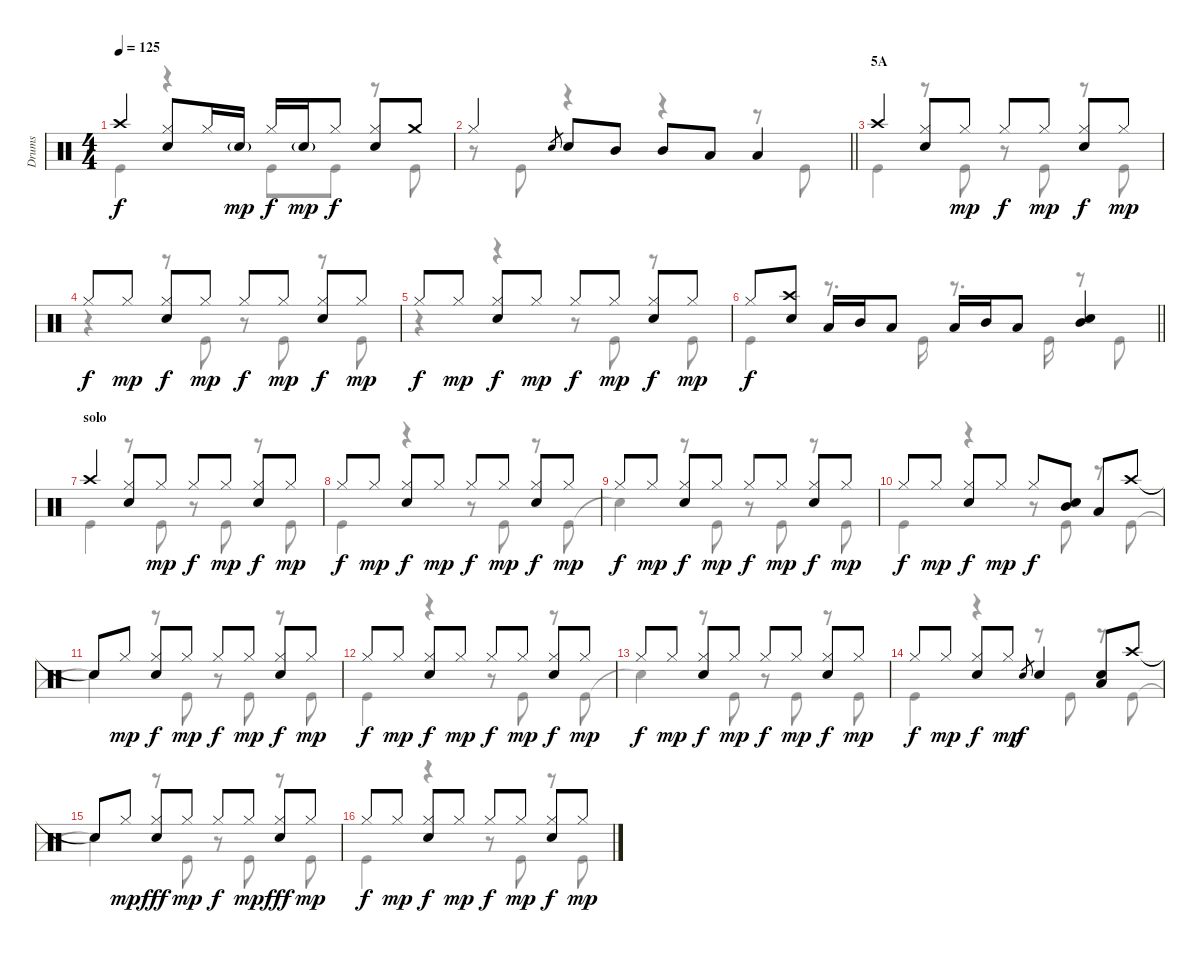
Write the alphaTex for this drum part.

\track ("Drums" "Drums") {instrument percussion}
\staff {score}
\articulation defaults
\voice
\ts (4 4)
\tempo 125
\clef neutral
\ks c "Crash high (hit)".4{dy f}
("Hi-Hat (closed)" "Snare (hit) 2").8 "Hi-Hat (closed)".16 "Snare (hit) 2"{g}.16{dy mp} "Hi-Hat (closed)".16{dy f} "Snare (hit) 2"{g}.16{dy mp} "Hi-Hat (closed)".8{dy f} ("Hi-Hat (closed)" "Snare (hit) 2").8 "Crash medium (hit)".8 |
\barLineRight lightlight "Hi-Hat (closed)".4 "Snare (hit) 2".8{gr} "Snare (hit) 2".8 "Mid Tom (hit)".8 "Mid Tom (hit)".8 "Low Tom (hit)".8 "Low Tom (hit)".4
|
\section ("" "5A")
"Crash high (hit)".4 ("Hi-Hat (closed)" "Snare (hit) 2").8 "Hi-Hat (closed)".8{dy mp} "Hi-Hat (closed)".8{dy f} "Hi-Hat (closed)".8{dy mp} ("Hi-Hat (closed)" "Snare (hit) 2").8{dy f} "Hi-Hat (closed)".8{dy mp} |
"Hi-Hat (closed)".8{dy f} "Hi-Hat (closed)".8{dy mp} ("Hi-Hat (closed)" "Snare (hit) 2").8{dy f} "Hi-Hat (closed)".8{dy mp} "Hi-Hat (closed)".8{dy f} "Hi-Hat (closed)".8{dy mp} ("Hi-Hat (closed)" "Snare (hit) 2").8{dy f} "Hi-Hat (closed)".8{dy mp} |
"Hi-Hat (closed)".8{dy f} "Hi-Hat (closed)".8{dy mp} ("Hi-Hat (closed)" "Snare (hit) 2").8{dy f} "Hi-Hat (closed)".8{dy mp} "Hi-Hat (closed)".8{dy f} "Hi-Hat (closed)".8{dy mp} ("Hi-Hat (closed)" "Snare (hit) 2").8{dy f} "Hi-Hat (closed)".8{dy mp} |
\barLineRight lightlight "Hi-Hat (closed)".8{dy f}
("Crash high (hit)" "Snare (hit) 2").8 "Low Tom (hit)".16 "Mid Tom (hit)".16 "Low Tom (hit)".8 "Low Tom (hit)".16 "Mid Tom (hit)".16 "Low Tom (hit)".8 ("Mid Tom (hit)" "Snare (hit) 2").4 |
\section ("" "solo")
"Crash high (hit)".4 ("Hi-Hat (closed)" "Snare (hit) 2").8 "Hi-Hat (closed)".8{dy mp} "Hi-Hat (closed)".8{dy f} "Hi-Hat (closed)".8{dy mp} ("Hi-Hat (closed)" "Snare (hit) 2").8{dy f} "Hi-Hat (closed)".8{dy mp} |
"Hi-Hat (closed)".8{dy f} "Hi-Hat (closed)".8{dy mp} ("Hi-Hat (closed)" "Snare (hit) 2").8{dy f} "Hi-Hat (closed)".8{dy mp} "Hi-Hat (closed)".8{dy f} "Hi-Hat (closed)".8{dy mp} ("Hi-Hat (closed)" "Snare (hit) 2").8{dy f} "Hi-Hat (closed)".8{dy mp} |
"Hi-Hat (closed)".8{dy f} "Hi-Hat (closed)".8{dy mp} ("Hi-Hat (closed)" "Snare (hit) 2").8{dy f} "Hi-Hat (closed)".8{dy mp} "Hi-Hat (closed)".8{dy f} "Hi-Hat (closed)".8{dy mp} ("Hi-Hat (closed)" "Snare (hit) 2").8{dy f} "Hi-Hat (closed)".8{dy mp} |
"Hi-Hat (closed)".8{dy f} "Hi-Hat (closed)".8{dy mp} ("Hi-Hat (closed)" "Snare (hit) 2").8{dy f} "Hi-Hat (closed)".8{dy mp} "Hi-Hat (closed)".8{dy f} ("Snare (hit) 2" "Mid Tom (hit)").8 "Low Tom (hit)".8 "Crash high (hit)".8 |
"Snare (hit)"{t}.8 "Hi-Hat (closed)".8{dy mp} ("Hi-Hat (closed)" "Snare (hit) 2").8{dy f} "Hi-Hat (closed)".8{dy mp} "Hi-Hat (closed)".8{dy f} "Hi-Hat (closed)".8{dy mp} ("Hi-Hat (closed)" "Snare (hit) 2").8{dy f} "Hi-Hat (closed)".8{dy mp} |
"Hi-Hat (closed)".8{dy f} "Hi-Hat (closed)".8{dy mp} ("Hi-Hat (closed)" "Snare (hit) 2").8{dy f} "Hi-Hat (closed)".8{dy mp} "Hi-Hat (closed)".8{dy f} "Hi-Hat (closed)".8{dy mp} ("Hi-Hat (closed)" "Snare (hit) 2").8{dy f} "Hi-Hat (closed)".8{dy mp} |
"Hi-Hat (closed)".8{dy f} "Hi-Hat (closed)".8{dy mp} ("Hi-Hat (closed)" "Snare (hit) 2").8{dy f} "Hi-Hat (closed)".8{dy mp} "Hi-Hat (closed)".8{dy f} "Hi-Hat (closed)".8{dy mp} ("Hi-Hat (closed)" "Snare (hit) 2").8{dy f} "Hi-Hat (closed)".8{dy mp} |
"Hi-Hat (closed)".8{dy f} "Hi-Hat (closed)".8{dy mp} ("Hi-Hat (closed)" "Snare (hit) 2").8{dy f} "Hi-Hat (closed)".8{dy mp} "Snare (hit) 2".8{gr dy f} "Snare (hit) 2".4 ("Low Tom (hit)" "Snare (hit) 2").8 "Crash high (hit)".8 |
"Snare (hit)"{t}.8 "Hi-Hat (closed)".8{dy mp} ("Hi-Hat (closed)" "Snare (hit) 2").8{dy fff} "Hi-Hat (closed)".8{dy mp} "Hi-Hat (closed)".8{dy f} "Hi-Hat (closed)".8{dy mp} ("Hi-Hat (closed)" "Snare (hit) 2").8{dy fff} "Hi-Hat (closed)".8{dy mp} |
"Hi-Hat (closed)".8{dy f} "Hi-Hat (closed)".8{dy mp} ("Hi-Hat (closed)" "Snare (hit) 2").8{dy f} "Hi-Hat (closed)".8{dy mp} "Hi-Hat (closed)".8{dy f} "Hi-Hat (closed)".8{dy mp} ("Hi-Hat (closed)" "Snare (hit) 2").8{dy f} "Hi-Hat (closed)".8{dy mp}
\voice
\clef neutral
\ottava regular
\simile none
\ks c "Kick (hit)".4{dy f}
r.4 "Kick (hit)".8 "Kick (hit)".8 r.8 "Kick (hit)".8 |
\barLineRight lightlight
r.8 "Kick (hit)".8 r.4 r.4 r.8 "Kick (hit)".8 |
"Kick (hit)".4 r.8 "Kick (hit)".8 r.8 "Kick (hit)".8 r.8 "Kick (hit)".8 |
r.4 r.8 "Kick (hit)".8 r.8 "Kick (hit)".8 r.8 "Kick (hit)".8 |
r.4 r.4 r.8 "Kick (hit)".8 r.8 "Kick (hit)".8 |
\barLineRight lightlight "Kick (hit)".4
r.8{d} "Kick (hit)".16 r.8{d} "Kick (hit)".16 r.8 "Kick (hit)".8 |
"Kick (hit)".4 r.8 "Kick (hit)".8 r.8 "Kick (hit)".8 r.8 "Kick (hit)".8 |
"Kick (hit)".4 r.4 r.8 "Kick (hit)".8 r.8 "Kick (hit)".8 |
"Snare (hit)"{t}.4 r.8 "Kick (hit)".8 r.8 "Kick (hit)".8 r.8 "Kick (hit)".8 |
"Kick (hit)".4 r.4 r.8 "Kick (hit)".8 r.8 "Kick (hit)".8 |
"Snare (hit)"{t}.4 r.8 "Kick (hit)".8 r.8 "Kick (hit)".8 r.8 "Kick (hit)".8 |
"Kick (hit)".4 r.4 r.8 "Kick (hit)".8 r.8 "Kick (hit)".8 |
"Snare (hit)"{t}.4 r.8 "Kick (hit)".8 r.8 "Kick (hit)".8 r.8 "Kick (hit)".8 |
"Kick (hit)".4 r.4 r.8 "Kick (hit)".8 r.8 "Kick (hit)".8 |
"Snare (hit)"{t}.4 r.8 "Kick (hit)".8 r.8 "Kick (hit)".8 r.8 "Kick (hit)".8 |
"Kick (hit)".4 r.4 r.8 "Kick (hit)".8 r.8 "Kick (hit)".8
